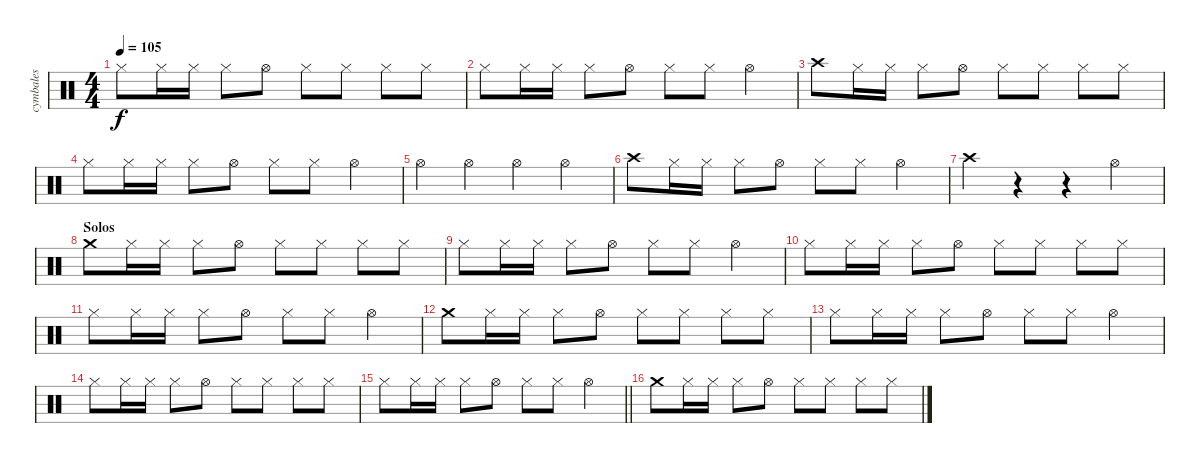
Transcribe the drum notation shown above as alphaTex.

\track ("cymbales" "cymbales") {instrument percussion}
\staff {score}
\articulation defaults
\ts (4 4)
\tempo 105
\clef neutral
\ks c "Hi-Hat (closed)".8{dy f} "Hi-Hat (closed)".16 "Hi-Hat (closed)".16 "Hi-Hat (closed)".8 "Hi-Hat (open)".8 "Hi-Hat (closed)".8 "Hi-Hat (closed)".8 "Hi-Hat (closed)".8 "Hi-Hat (closed)".8
|
"Hi-Hat (closed)".8 "Hi-Hat (closed)".16 "Hi-Hat (closed)".16 "Hi-Hat (closed)".8 "Hi-Hat (open)".8 "Hi-Hat (closed)".8 "Hi-Hat (closed)".8 "Hi-Hat (open)".4 |
"Crash high (hit)".8 "Hi-Hat (closed)".16 "Hi-Hat (closed)".16 "Hi-Hat (closed)".8 "Hi-Hat (open)".8 "Hi-Hat (closed)".8 "Hi-Hat (closed)".8 "Hi-Hat (closed)".8 "Hi-Hat (closed)".8 |
"Hi-Hat (closed)".8 "Hi-Hat (closed)".16 "Hi-Hat (closed)".16 "Hi-Hat (closed)".8 "Hi-Hat (open)".8 "Hi-Hat (closed)".8 "Hi-Hat (closed)".8 "Hi-Hat (open)".4 |
"Hi-Hat (open)".4 "Hi-Hat (open)".4 "Hi-Hat (open)".4 "Hi-Hat (open)".4 |
"Crash high (hit)".8 "Hi-Hat (closed)".16 "Hi-Hat (closed)".16 "Hi-Hat (closed)".8 "Hi-Hat (open)".8 "Hi-Hat (closed)".8 "Hi-Hat (closed)".8 "Hi-Hat (open)".4 |
"Crash high (hit)".4 r.4 r.4 "Hi-Hat (open)".4 |
\section ("" "Solos")
"Crash medium (hit)".8 "Hi-Hat (closed)".16 "Hi-Hat (closed)".16 "Hi-Hat (closed)".8 "Hi-Hat (open)".8 "Hi-Hat (closed)".8 "Hi-Hat (closed)".8 "Hi-Hat (closed)".8 "Hi-Hat (closed)".8 |
"Hi-Hat (closed)".8 "Hi-Hat (closed)".16 "Hi-Hat (closed)".16 "Hi-Hat (closed)".8 "Hi-Hat (open)".8 "Hi-Hat (closed)".8 "Hi-Hat (closed)".8 "Hi-Hat (open)".4 |
"Hi-Hat (closed)".8 "Hi-Hat (closed)".16 "Hi-Hat (closed)".16 "Hi-Hat (closed)".8 "Hi-Hat (open)".8 "Hi-Hat (closed)".8 "Hi-Hat (closed)".8 "Hi-Hat (closed)".8 "Hi-Hat (closed)".8 |
"Hi-Hat (closed)".8 "Hi-Hat (closed)".16 "Hi-Hat (closed)".16 "Hi-Hat (closed)".8 "Hi-Hat (open)".8 "Hi-Hat (closed)".8 "Hi-Hat (closed)".8 "Hi-Hat (open)".4 |
"Crash medium (hit)".8 "Hi-Hat (closed)".16 "Hi-Hat (closed)".16 "Hi-Hat (closed)".8 "Hi-Hat (open)".8 "Hi-Hat (closed)".8 "Hi-Hat (closed)".8 "Hi-Hat (closed)".8 "Hi-Hat (closed)".8 |
"Hi-Hat (closed)".8 "Hi-Hat (closed)".16 "Hi-Hat (closed)".16 "Hi-Hat (closed)".8 "Hi-Hat (open)".8 "Hi-Hat (closed)".8 "Hi-Hat (closed)".8 "Hi-Hat (open)".4 |
"Hi-Hat (closed)".8 "Hi-Hat (closed)".16 "Hi-Hat (closed)".16 "Hi-Hat (closed)".8 "Hi-Hat (open)".8 "Hi-Hat (closed)".8 "Hi-Hat (closed)".8 "Hi-Hat (closed)".8 "Hi-Hat (closed)".8 |
\barLineRight lightlight "Hi-Hat (closed)".8 "Hi-Hat (closed)".16 "Hi-Hat (closed)".16 "Hi-Hat (closed)".8 "Hi-Hat (open)".8 "Hi-Hat (closed)".8 "Hi-Hat (closed)".8 "Hi-Hat (open)".4
|
"Crash medium (hit)".8 "Hi-Hat (closed)".16 "Hi-Hat (closed)".16 "Hi-Hat (closed)".8 "Hi-Hat (open)".8 "Hi-Hat (closed)".8 "Hi-Hat (closed)".8 "Hi-Hat (closed)".8 "Hi-Hat (closed)".8
